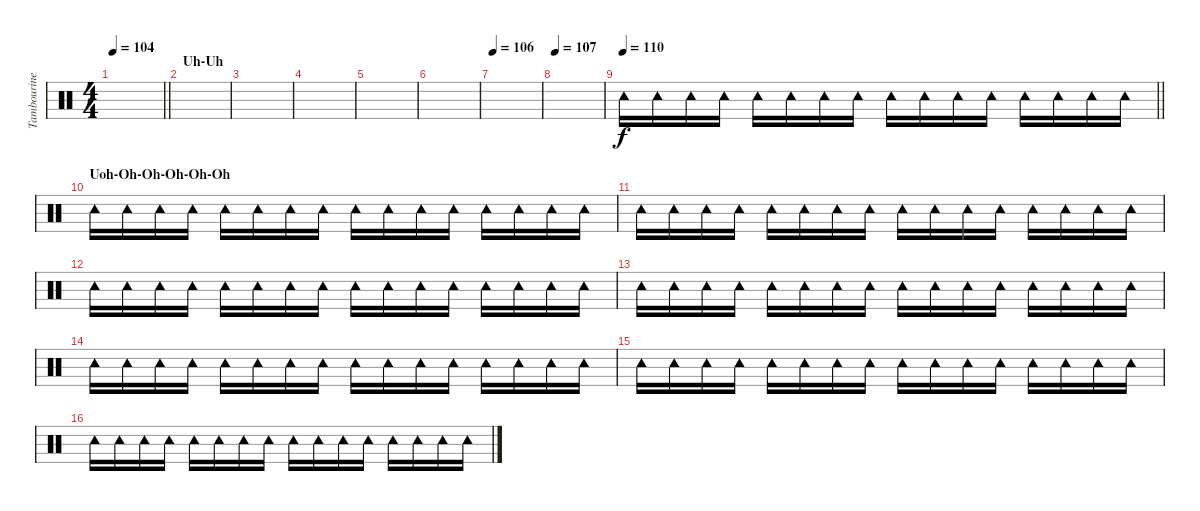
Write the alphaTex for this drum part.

\track ("Tambourine" "Tambourine") {instrument percussion}
\staff {score}
\articulation defaults
\ts (4 4)
\tempo 104
\clef neutral
\barLineRight lightlight
\ks c
|
\section ("" "Uh-Uh")
|
|
|
|
|
\tempo 106
|
\tempo 107
|
\tempo 110
\barLineRight lightlight "Tambourine (hit)".16{volume 13} "Tambourine (hit)".16 "Tambourine (hit)".16 "Tambourine (hit)".16 "Tambourine (hit)".16 "Tambourine (hit)".16 "Tambourine (hit)".16 "Tambourine (hit)".16 "Tambourine (hit)".16 "Tambourine (hit)".16 "Tambourine (hit)".16 "Tambourine (hit)".16 "Tambourine (hit)".16 "Tambourine (hit)".16 "Tambourine (hit)".16 "Tambourine (hit)".16
|
\section ("" "Uoh-Oh-Oh-Oh-Oh-Oh")
"Tambourine (hit)".16 "Tambourine (hit)".16 "Tambourine (hit)".16 "Tambourine (hit)".16 "Tambourine (hit)".16 "Tambourine (hit)".16 "Tambourine (hit)".16 "Tambourine (hit)".16 "Tambourine (hit)".16 "Tambourine (hit)".16 "Tambourine (hit)".16 "Tambourine (hit)".16 "Tambourine (hit)".16 "Tambourine (hit)".16 "Tambourine (hit)".16 "Tambourine (hit)".16 |
"Tambourine (hit)".16 "Tambourine (hit)".16 "Tambourine (hit)".16 "Tambourine (hit)".16 "Tambourine (hit)".16 "Tambourine (hit)".16 "Tambourine (hit)".16 "Tambourine (hit)".16 "Tambourine (hit)".16 "Tambourine (hit)".16 "Tambourine (hit)".16 "Tambourine (hit)".16 "Tambourine (hit)".16 "Tambourine (hit)".16 "Tambourine (hit)".16 "Tambourine (hit)".16 |
"Tambourine (hit)".16 "Tambourine (hit)".16 "Tambourine (hit)".16 "Tambourine (hit)".16 "Tambourine (hit)".16 "Tambourine (hit)".16 "Tambourine (hit)".16 "Tambourine (hit)".16 "Tambourine (hit)".16 "Tambourine (hit)".16 "Tambourine (hit)".16 "Tambourine (hit)".16 "Tambourine (hit)".16 "Tambourine (hit)".16 "Tambourine (hit)".16 "Tambourine (hit)".16 |
"Tambourine (hit)".16 "Tambourine (hit)".16 "Tambourine (hit)".16 "Tambourine (hit)".16 "Tambourine (hit)".16 "Tambourine (hit)".16 "Tambourine (hit)".16 "Tambourine (hit)".16 "Tambourine (hit)".16 "Tambourine (hit)".16 "Tambourine (hit)".16 "Tambourine (hit)".16 "Tambourine (hit)".16 "Tambourine (hit)".16 "Tambourine (hit)".16 "Tambourine (hit)".16 |
"Tambourine (hit)".16 "Tambourine (hit)".16 "Tambourine (hit)".16 "Tambourine (hit)".16 "Tambourine (hit)".16 "Tambourine (hit)".16 "Tambourine (hit)".16 "Tambourine (hit)".16 "Tambourine (hit)".16 "Tambourine (hit)".16 "Tambourine (hit)".16 "Tambourine (hit)".16 "Tambourine (hit)".16 "Tambourine (hit)".16 "Tambourine (hit)".16 "Tambourine (hit)".16 |
"Tambourine (hit)".16 "Tambourine (hit)".16 "Tambourine (hit)".16 "Tambourine (hit)".16 "Tambourine (hit)".16 "Tambourine (hit)".16 "Tambourine (hit)".16 "Tambourine (hit)".16 "Tambourine (hit)".16 "Tambourine (hit)".16 "Tambourine (hit)".16 "Tambourine (hit)".16 "Tambourine (hit)".16 "Tambourine (hit)".16 "Tambourine (hit)".16 "Tambourine (hit)".16 |
"Tambourine (hit)".16 "Tambourine (hit)".16 "Tambourine (hit)".16 "Tambourine (hit)".16 "Tambourine (hit)".16 "Tambourine (hit)".16 "Tambourine (hit)".16 "Tambourine (hit)".16 "Tambourine (hit)".16 "Tambourine (hit)".16 "Tambourine (hit)".16 "Tambourine (hit)".16 "Tambourine (hit)".16 "Tambourine (hit)".16 "Tambourine (hit)".16 "Tambourine (hit)".16
